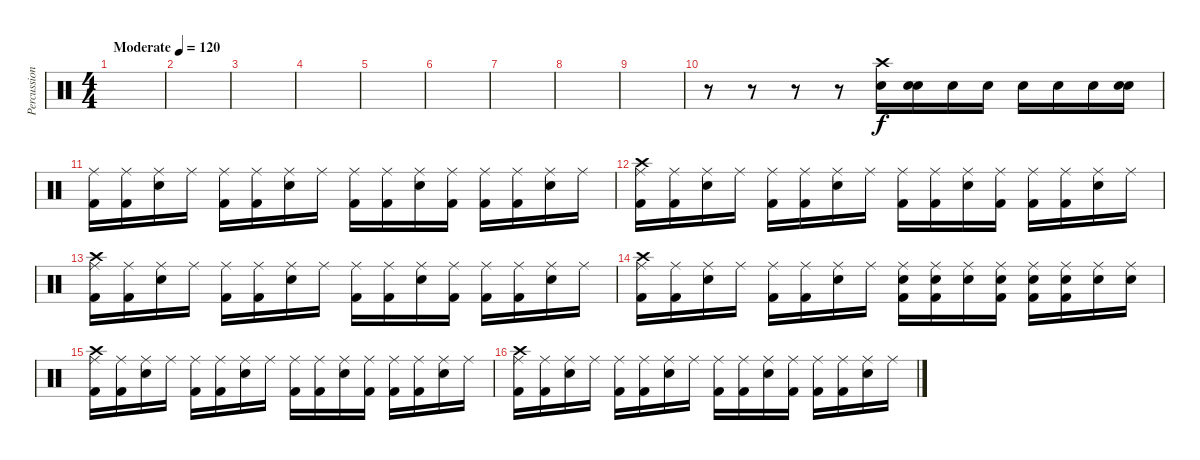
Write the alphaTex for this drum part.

\track ("Percussions" "Percussion") {instrument percussion}
\staff {score}
\articulation defaults
\ts (4 4)
\tempo (120 "Moderate")
\clef neutral
\ks c
|
|
|
|
|
|
|
|
|
r.8 r.8 r.8 r.8 ("Crash high (hit)" "Electric Snare (hit)").16 ("Snare (hit) 2" "Electric Snare (hit)").16 "Electric Snare (hit)".16 "Electric Snare (hit)".16 "Electric Snare (hit)".16 "Electric Snare (hit)".16 "Electric Snare (hit)".16 ("Snare (hit) 2" "Electric Snare (hit)").16 |
("Ride (middle)" "Kick (hit) 2").16 ("Ride (middle)" "Kick (hit) 2").16 ("Ride (middle)" "Electric Snare (hit)").16 "Ride (middle)".16 ("Ride (middle)" "Kick (hit) 2").16 ("Ride (middle)" "Kick (hit) 2").16 ("Ride (middle)" "Electric Snare (hit)").16 "Ride (middle)".16 ("Ride (middle)" "Kick (hit) 2").16 ("Ride (middle)" "Kick (hit) 2").16 ("Ride (middle)" "Electric Snare (hit)").16 ("Ride (middle)" "Kick (hit) 2").16 ("Ride (middle)" "Kick (hit) 2").16 ("Ride (middle)" "Kick (hit) 2").16 ("Ride (middle)" "Electric Snare (hit)").16 "Ride (middle)".16 |
("Ride (middle)" "Crash high (hit)" "Kick (hit) 2").16 ("Ride (middle)" "Kick (hit) 2").16 ("Ride (middle)" "Electric Snare (hit)").16 "Ride (middle)".16 ("Ride (middle)" "Kick (hit) 2").16 ("Ride (middle)" "Kick (hit) 2").16 ("Ride (middle)" "Electric Snare (hit)").16 "Ride (middle)".16 ("Ride (middle)" "Kick (hit) 2").16 ("Ride (middle)" "Kick (hit) 2").16 ("Ride (middle)" "Electric Snare (hit)").16 ("Ride (middle)" "Kick (hit) 2").16 ("Ride (middle)" "Kick (hit) 2").16 ("Ride (middle)" "Kick (hit) 2").16 ("Ride (middle)" "Electric Snare (hit)").16 "Ride (middle)".16 |
("Ride (middle)" "Crash high (hit)" "Kick (hit) 2").16 ("Ride (middle)" "Kick (hit) 2").16 ("Ride (middle)" "Electric Snare (hit)").16 "Ride (middle)".16 ("Ride (middle)" "Kick (hit) 2").16 ("Ride (middle)" "Kick (hit) 2").16 ("Ride (middle)" "Electric Snare (hit)").16 "Ride (middle)".16 ("Ride (middle)" "Kick (hit) 2").16 ("Ride (middle)" "Kick (hit) 2").16 ("Ride (middle)" "Electric Snare (hit)").16 ("Ride (middle)" "Kick (hit) 2").16 ("Ride (middle)" "Kick (hit) 2").16 ("Ride (middle)" "Kick (hit) 2").16 ("Ride (middle)" "Electric Snare (hit)").16 "Ride (middle)".16 |
("Ride (middle)" "Crash high (hit)" "Kick (hit) 2").16 ("Ride (middle)" "Kick (hit) 2").16 ("Ride (middle)" "Electric Snare (hit)").16 "Ride (middle)".16 ("Ride (middle)" "Kick (hit) 2").16 ("Ride (middle)" "Kick (hit) 2").16 ("Ride (middle)" "Electric Snare (hit)").16 "Ride (middle)".16 ("Ride (middle)" "Electric Snare (hit)" "Kick (hit) 2").16 ("Ride (middle)" "Electric Snare (hit)" "Kick (hit) 2").16 ("Ride (middle)" "Electric Snare (hit)").16 ("Ride (middle)" "Electric Snare (hit)" "Kick (hit) 2").16 ("Ride (middle)" "Electric Snare (hit)" "Kick (hit) 2").16 ("Ride (middle)" "Electric Snare (hit)" "Kick (hit) 2").16 ("Ride (middle)" "Electric Snare (hit)").16 ("Ride (middle)" "Electric Snare (hit)").16 |
("Ride (middle)" "Crash high (hit)" "Kick (hit) 2").16 ("Ride (middle)" "Kick (hit) 2").16 ("Ride (middle)" "Electric Snare (hit)").16 "Ride (middle)".16 ("Ride (middle)" "Kick (hit) 2").16 ("Ride (middle)" "Kick (hit) 2").16 ("Ride (middle)" "Electric Snare (hit)").16 "Ride (middle)".16 ("Ride (middle)" "Kick (hit) 2").16 ("Ride (middle)" "Kick (hit) 2").16 ("Ride (middle)" "Electric Snare (hit)").16 ("Ride (middle)" "Kick (hit) 2").16 ("Ride (middle)" "Kick (hit) 2").16 ("Ride (middle)" "Kick (hit) 2").16 ("Ride (middle)" "Electric Snare (hit)").16 "Ride (middle)".16 |
("Ride (middle)" "Crash high (hit)" "Kick (hit) 2").16 ("Ride (middle)" "Kick (hit) 2").16 ("Ride (middle)" "Electric Snare (hit)").16 "Ride (middle)".16 ("Ride (middle)" "Kick (hit) 2").16 ("Ride (middle)" "Kick (hit) 2").16 ("Ride (middle)" "Electric Snare (hit)").16 "Ride (middle)".16 ("Ride (middle)" "Kick (hit) 2").16 ("Ride (middle)" "Kick (hit) 2").16 ("Ride (middle)" "Electric Snare (hit)").16 ("Ride (middle)" "Kick (hit) 2").16 ("Ride (middle)" "Kick (hit) 2").16 ("Ride (middle)" "Kick (hit) 2").16 ("Ride (middle)" "Electric Snare (hit)").16 "Ride (middle)".16
